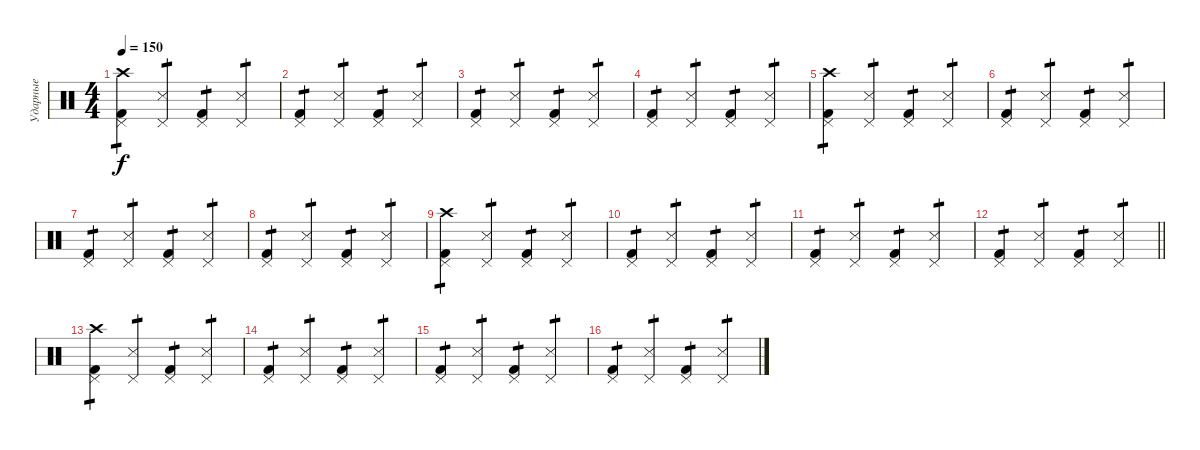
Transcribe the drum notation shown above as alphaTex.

\track ("Ударные" "Ударные") {instrument percussion}
\staff {score}
\articulation defaults
\ts (4 4)
\tempo 150
\clef neutral
\ks c
("Pedal Hi-Hat (hit)" "Kick (hit) 2" "Crash high (hit)").4{tp 1 dy f} ("Pedal Hi-Hat (hit)" "Snare (side stick) 3").4{tp 1} ("Pedal Hi-Hat (hit)" "Kick (hit) 2").4{tp 1} ("Pedal Hi-Hat (hit)" "Snare (side stick) 3").4{tp 1} |
("Pedal Hi-Hat (hit)" "Kick (hit) 2").4{tp 1} ("Pedal Hi-Hat (hit)" "Snare (side stick) 3").4{tp 1} ("Pedal Hi-Hat (hit)" "Kick (hit) 2").4{tp 1} ("Pedal Hi-Hat (hit)" "Snare (side stick) 3").4{tp 1} |
("Pedal Hi-Hat (hit)" "Kick (hit) 2").4{tp 1} ("Pedal Hi-Hat (hit)" "Snare (side stick) 3").4{tp 1} ("Pedal Hi-Hat (hit)" "Kick (hit) 2").4{tp 1} ("Pedal Hi-Hat (hit)" "Snare (side stick) 3").4{tp 1} |
("Pedal Hi-Hat (hit)" "Kick (hit) 2").4{tp 1} ("Pedal Hi-Hat (hit)" "Snare (side stick) 3").4{tp 1} ("Pedal Hi-Hat (hit)" "Kick (hit) 2").4{tp 1} ("Pedal Hi-Hat (hit)" "Snare (side stick) 3").4{tp 1} |
("Pedal Hi-Hat (hit)" "Kick (hit) 2" "Crash high (hit)").4{tp 1} ("Pedal Hi-Hat (hit)" "Snare (side stick) 3").4{tp 1} ("Pedal Hi-Hat (hit)" "Kick (hit) 2").4{tp 1} ("Pedal Hi-Hat (hit)" "Snare (side stick) 3").4{tp 1} |
("Pedal Hi-Hat (hit)" "Kick (hit) 2").4{tp 1} ("Pedal Hi-Hat (hit)" "Snare (side stick) 3").4{tp 1} ("Pedal Hi-Hat (hit)" "Kick (hit) 2").4{tp 1} ("Pedal Hi-Hat (hit)" "Snare (side stick) 3").4{tp 1} |
("Pedal Hi-Hat (hit)" "Kick (hit) 2").4{tp 1} ("Pedal Hi-Hat (hit)" "Snare (side stick) 3").4{tp 1} ("Pedal Hi-Hat (hit)" "Kick (hit) 2").4{tp 1} ("Pedal Hi-Hat (hit)" "Snare (side stick) 3").4{tp 1} |
("Pedal Hi-Hat (hit)" "Kick (hit) 2").4{tp 1} ("Pedal Hi-Hat (hit)" "Snare (side stick) 3").4{tp 1} ("Pedal Hi-Hat (hit)" "Kick (hit) 2").4{tp 1} ("Pedal Hi-Hat (hit)" "Snare (side stick) 3").4{tp 1} |
("Pedal Hi-Hat (hit)" "Kick (hit) 2" "Crash high (hit)").4{tp 1} ("Pedal Hi-Hat (hit)" "Snare (side stick) 3").4{tp 1} ("Pedal Hi-Hat (hit)" "Kick (hit) 2").4{tp 1} ("Pedal Hi-Hat (hit)" "Snare (side stick) 3").4{tp 1} |
("Pedal Hi-Hat (hit)" "Kick (hit) 2").4{tp 1} ("Pedal Hi-Hat (hit)" "Snare (side stick) 3").4{tp 1} ("Pedal Hi-Hat (hit)" "Kick (hit) 2").4{tp 1} ("Pedal Hi-Hat (hit)" "Snare (side stick) 3").4{tp 1} |
("Pedal Hi-Hat (hit)" "Kick (hit) 2").4{tp 1} ("Pedal Hi-Hat (hit)" "Snare (side stick) 3").4{tp 1} ("Pedal Hi-Hat (hit)" "Kick (hit) 2").4{tp 1} ("Pedal Hi-Hat (hit)" "Snare (side stick) 3").4{tp 1} |
\barLineRight lightlight
("Pedal Hi-Hat (hit)" "Kick (hit) 2").4{tp 1} ("Pedal Hi-Hat (hit)" "Snare (side stick) 3").4{tp 1} ("Pedal Hi-Hat (hit)" "Kick (hit) 2").4{tp 1} ("Pedal Hi-Hat (hit)" "Snare (side stick) 3").4{tp 1} |
("Pedal Hi-Hat (hit)" "Kick (hit) 2" "Crash high (hit)").4{tp 1} ("Pedal Hi-Hat (hit)" "Snare (side stick) 3").4{tp 1} ("Pedal Hi-Hat (hit)" "Kick (hit) 2").4{tp 1} ("Pedal Hi-Hat (hit)" "Snare (side stick) 3").4{tp 1} |
("Pedal Hi-Hat (hit)" "Kick (hit) 2").4{tp 1} ("Pedal Hi-Hat (hit)" "Snare (side stick) 3").4{tp 1} ("Pedal Hi-Hat (hit)" "Kick (hit) 2").4{tp 1} ("Pedal Hi-Hat (hit)" "Snare (side stick) 3").4{tp 1} |
("Pedal Hi-Hat (hit)" "Kick (hit) 2").4{tp 1} ("Pedal Hi-Hat (hit)" "Snare (side stick) 3").4{tp 1} ("Pedal Hi-Hat (hit)" "Kick (hit) 2").4{tp 1} ("Pedal Hi-Hat (hit)" "Snare (side stick) 3").4{tp 1} |
("Pedal Hi-Hat (hit)" "Kick (hit) 2").4{tp 1} ("Pedal Hi-Hat (hit)" "Snare (side stick) 3").4{tp 1} ("Pedal Hi-Hat (hit)" "Kick (hit) 2").4{tp 1} ("Pedal Hi-Hat (hit)" "Snare (side stick) 3").4{tp 1}
